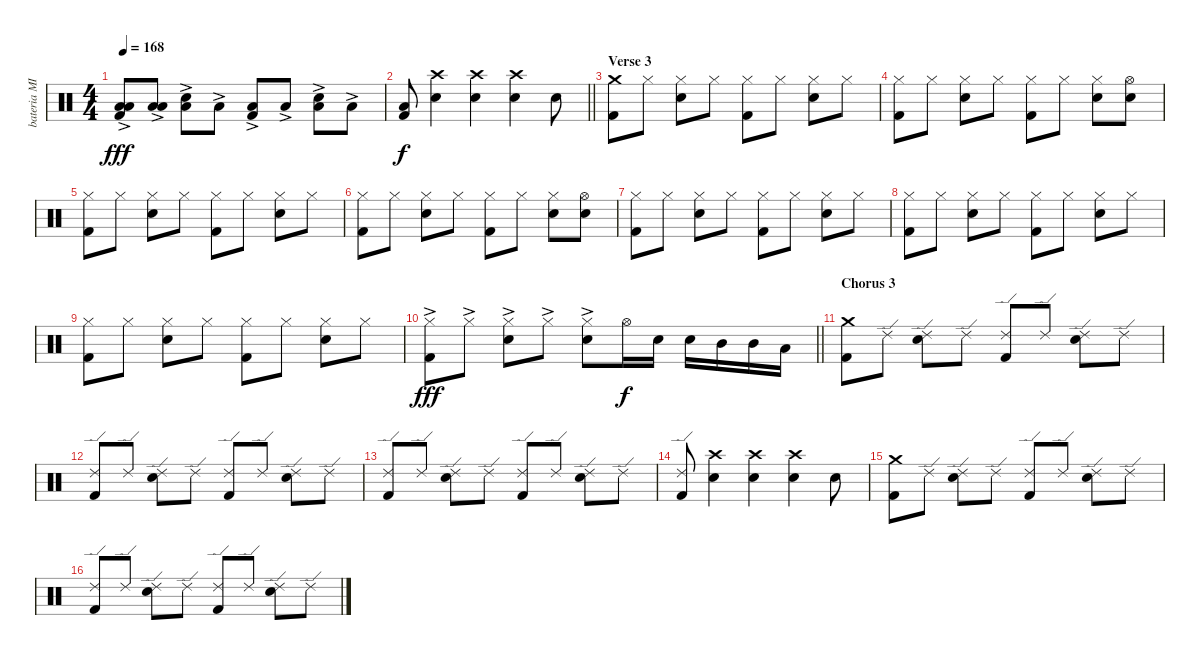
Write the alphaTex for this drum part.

\track ("bateria MIDI" "bateria MI") {instrument percussion}
\staff {score}
\articulation defaults
\ts (4 4)
\tempo 168
\clef neutral
\ks c
("Low Floor Tom (hit)"{ac} "Kick (hit) 2"{ac} "Low Floor Tom (hit)"{ac}).8{dy fff} ("Low Floor Tom (hit)"{ac} "Low Floor Tom (hit)"{ac}).8 ("Low Floor Tom (hit)"{ac} "Snare (hit) 2"{ac}).8 "Low Floor Tom (hit)"{ac}.8 ("Low Floor Tom (hit)"{ac} "Kick (hit) 2"{ac}).8 "Low Floor Tom (hit)"{ac}.8 ("Low Floor Tom (hit)"{ac} "Snare (hit) 2"{ac}).8 "Low Floor Tom (hit)"{ac}.8 |
\barLineRight lightlight
("Low Floor Tom (hit)" "Kick (hit) 2").8{dy f} ("Crash high (hit)" "Snare (hit) 2").4 ("Crash high (hit)" "Snare (hit) 2").4 ("Crash high (hit)" "Snare (hit) 2").4 "Snare (hit) 2".8 |
\section ("" "Verse 3")
("Crash medium (hit)" "Kick (hit) 2").8 "Hi-Hat (closed)".8 ("Hi-Hat (closed)" "Snare (hit) 2").8 "Hi-Hat (closed)".8 ("Hi-Hat (closed)" "Kick (hit) 2").8 "Hi-Hat (closed)".8 ("Hi-Hat (closed)" "Snare (hit) 2").8 "Hi-Hat (closed)".8 |
("Hi-Hat (closed)" "Kick (hit) 2").8 "Hi-Hat (closed)".8 ("Hi-Hat (closed)" "Snare (hit) 2").8 "Hi-Hat (closed)".8 ("Hi-Hat (closed)" "Kick (hit) 2").8 "Hi-Hat (closed)".8 ("Hi-Hat (closed)" "Snare (hit) 2").8 ("Hi-Hat (open)" "Snare (hit) 2").8 |
("Hi-Hat (closed)" "Kick (hit) 2").8 "Hi-Hat (closed)".8 ("Hi-Hat (closed)" "Snare (hit) 2").8 "Hi-Hat (closed)".8 ("Hi-Hat (closed)" "Kick (hit) 2").8 "Hi-Hat (closed)".8 ("Hi-Hat (closed)" "Snare (hit) 2").8 "Hi-Hat (closed)".8 |
("Hi-Hat (closed)" "Kick (hit) 2").8 "Hi-Hat (closed)".8 ("Hi-Hat (closed)" "Snare (hit) 2").8 "Hi-Hat (closed)".8 ("Hi-Hat (closed)" "Kick (hit) 2").8 "Hi-Hat (closed)".8 ("Hi-Hat (closed)" "Snare (hit) 2").8 ("Hi-Hat (open)" "Snare (hit) 2").8 |
("Hi-Hat (closed)" "Kick (hit) 2").8 "Hi-Hat (closed)".8 ("Hi-Hat (closed)" "Snare (hit) 2").8 "Hi-Hat (closed)".8 ("Hi-Hat (closed)" "Kick (hit) 2").8 "Hi-Hat (closed)".8 ("Hi-Hat (closed)" "Snare (hit) 2").8 "Hi-Hat (closed)".8 |
("Hi-Hat (closed)" "Kick (hit) 2").8 "Hi-Hat (closed)".8 ("Hi-Hat (closed)" "Snare (hit) 2").8 "Hi-Hat (closed)".8 ("Hi-Hat (closed)" "Kick (hit) 2").8 "Hi-Hat (closed)".8 ("Hi-Hat (closed)" "Snare (hit) 2").8 "Hi-Hat (closed)".8 |
("Hi-Hat (closed)" "Kick (hit) 2").8 "Hi-Hat (closed)".8 ("Hi-Hat (closed)" "Snare (hit) 2").8 "Hi-Hat (closed)".8 ("Hi-Hat (closed)" "Kick (hit) 2").8 "Hi-Hat (closed)".8 ("Hi-Hat (closed)" "Snare (hit) 2").8 "Hi-Hat (closed)".8 |
\barLineRight lightlight
("Hi-Hat (closed)"{ac} "Kick (hit) 2").8{dy fff} "Hi-Hat (closed)"{ac}.8 ("Hi-Hat (closed)"{ac} "Snare (hit) 2").8 "Hi-Hat (closed)"{ac}.8 ("Hi-Hat (closed)"{ac} "Snare (hit) 2").8 "Hi-Hat (open)".16{dy f} "Snare (hit) 2".16 "Snare (hit) 2".16 "Mid Tom (hit)".16 "Mid Tom (hit)".16 "Low Tom (hit)".16 |
\section ("" "Chorus 3")
("Crash medium (hit)" "Kick (hit) 2").8 "Ride (edge) 2".8 ("Ride (edge) 2" "Snare (hit) 2").8 "Ride (edge) 2".8 ("Ride (edge) 2" "Kick (hit) 2").8 "Ride (edge) 2".8 ("Ride (edge) 2" "Snare (hit) 2").8 "Ride (edge) 2".8 |
("Ride (edge) 2" "Kick (hit) 2").8 "Ride (edge) 2".8 ("Ride (edge) 2" "Snare (hit) 2").8 "Ride (edge) 2".8 ("Ride (edge) 2" "Kick (hit) 2").8 "Ride (edge) 2".8 ("Ride (edge) 2" "Snare (hit) 2").8 "Ride (edge) 2".8 |
("Ride (edge) 2" "Kick (hit) 2").8 "Ride (edge) 2".8 ("Ride (edge) 2" "Snare (hit) 2").8 "Ride (edge) 2".8 ("Ride (edge) 2" "Kick (hit) 2").8 "Ride (edge) 2".8 ("Ride (edge) 2" "Snare (hit) 2").8 "Ride (edge) 2".8 |
("Ride (edge) 2" "Kick (hit) 2").8 ("Crash high (hit)" "Snare (hit) 2").4 ("Crash high (hit)" "Snare (hit) 2").4 ("Crash high (hit)" "Snare (hit) 2").4 "Snare (hit) 2".8 |
("Crash medium (hit)" "Kick (hit) 2").8 "Ride (edge) 2".8 ("Ride (edge) 2" "Snare (hit) 2").8 "Ride (edge) 2".8 ("Ride (edge) 2" "Kick (hit) 2").8 "Ride (edge) 2".8 ("Ride (edge) 2" "Snare (hit) 2").8 "Ride (edge) 2".8 |
("Ride (edge) 2" "Kick (hit) 2").8 "Ride (edge) 2".8 ("Ride (edge) 2" "Snare (hit) 2").8 "Ride (edge) 2".8 ("Ride (edge) 2" "Kick (hit) 2").8 "Ride (edge) 2".8 ("Ride (edge) 2" "Snare (hit) 2").8 "Ride (edge) 2".8
